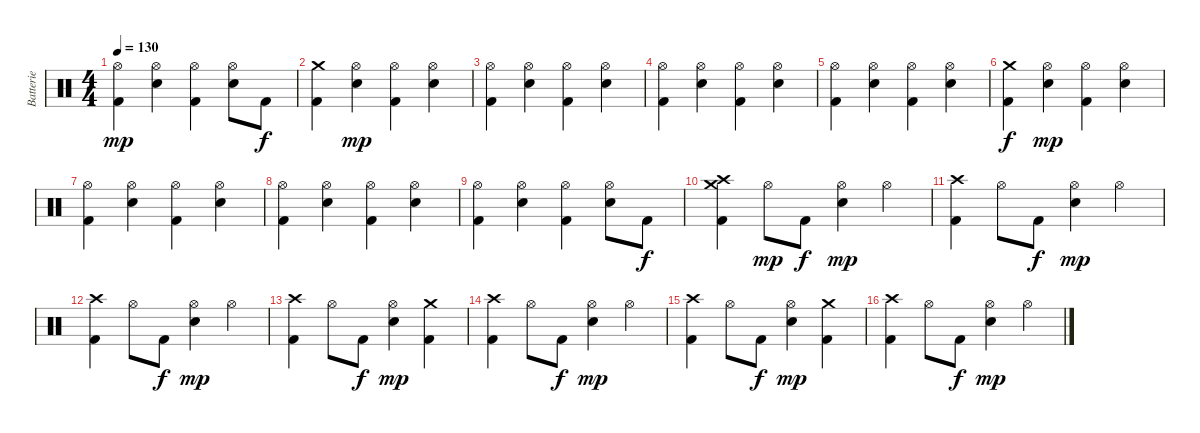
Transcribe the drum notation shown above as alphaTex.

\track ("Batterie" "Batterie") {instrument percussion}
\staff {score}
\articulation defaults
\ts (4 4)
\tempo 130
\clef neutral
\ks c
("Hi-Hat (open)" "Kick (hit) 2").4{dy mp} ("Hi-Hat (open)" "Electric Snare (hit)").4 ("Hi-Hat (open)" "Kick (hit) 2").4 ("Hi-Hat (open)" "Electric Snare (hit)").8 "Kick (hit) 2".8{dy f} |
("Crash medium (hit)" "Kick (hit) 2").4 ("Hi-Hat (open)" "Electric Snare (hit)").4{dy mp} ("Hi-Hat (open)" "Kick (hit) 2").4 ("Hi-Hat (open)" "Electric Snare (hit)").4 |
("Hi-Hat (open)" "Kick (hit) 2").4 ("Hi-Hat (open)" "Electric Snare (hit)").4 ("Hi-Hat (open)" "Kick (hit) 2").4 ("Hi-Hat (open)" "Electric Snare (hit)").4 |
("Hi-Hat (open)" "Kick (hit) 2").4 ("Hi-Hat (open)" "Electric Snare (hit)").4 ("Hi-Hat (open)" "Kick (hit) 2").4 ("Hi-Hat (open)" "Electric Snare (hit)").4 |
("Hi-Hat (open)" "Kick (hit) 2").4 ("Hi-Hat (open)" "Electric Snare (hit)").4 ("Hi-Hat (open)" "Kick (hit) 2").4 ("Hi-Hat (open)" "Electric Snare (hit)").4 |
("Crash medium (hit)" "Kick (hit) 2").4{dy f} ("Hi-Hat (open)" "Electric Snare (hit)").4{dy mp} ("Hi-Hat (open)" "Kick (hit) 2").4 ("Hi-Hat (open)" "Electric Snare (hit)").4 |
("Hi-Hat (open)" "Kick (hit) 2").4 ("Hi-Hat (open)" "Electric Snare (hit)").4 ("Hi-Hat (open)" "Kick (hit) 2").4 ("Hi-Hat (open)" "Electric Snare (hit)").4 |
("Hi-Hat (open)" "Kick (hit) 2").4 ("Hi-Hat (open)" "Electric Snare (hit)").4 ("Hi-Hat (open)" "Kick (hit) 2").4 ("Hi-Hat (open)" "Electric Snare (hit)").4 |
("Hi-Hat (open)" "Kick (hit) 2").4 ("Hi-Hat (open)" "Electric Snare (hit)").4 ("Hi-Hat (open)" "Kick (hit) 2").4 ("Hi-Hat (open)" "Electric Snare (hit)").8 "Kick (hit) 2".8{dy f} |
("Crash medium (hit)" "Crash high (hit)" "Kick (hit) 2").4 "Hi-Hat (open)".8{dy mp} "Kick (hit) 2".8{dy f} ("Hi-Hat (open)" "Electric Snare (hit)").4{dy mp} "Hi-Hat (open)".4 |
("Crash high (hit)" "Kick (hit) 2").4 "Hi-Hat (open)".8 "Kick (hit) 2".8{dy f} ("Hi-Hat (open)" "Electric Snare (hit)").4{dy mp} "Hi-Hat (open)".4 |
("Crash high (hit)" "Kick (hit) 2").4 "Hi-Hat (open)".8 "Kick (hit) 2".8{dy f} ("Hi-Hat (open)" "Electric Snare (hit)").4{dy mp} "Hi-Hat (open)".4 |
("Crash high (hit)" "Kick (hit) 2").4 "Hi-Hat (open)".8 "Kick (hit) 2".8{dy f} ("Hi-Hat (open)" "Electric Snare (hit)").4{dy mp} ("Crash medium (hit)" "Kick (hit) 2").4 |
("Crash high (hit)" "Kick (hit) 2").4 "Hi-Hat (open)".8 "Kick (hit) 2".8{dy f} ("Hi-Hat (open)" "Electric Snare (hit)").4{dy mp} "Hi-Hat (open)".4 |
("Crash high (hit)" "Kick (hit) 2").4 "Hi-Hat (open)".8 "Kick (hit) 2".8{dy f} ("Hi-Hat (open)" "Electric Snare (hit)").4{dy mp} ("Crash medium (hit)" "Kick (hit) 2").4 |
("Crash high (hit)" "Kick (hit) 2").4 "Hi-Hat (open)".8 "Kick (hit) 2".8{dy f} ("Hi-Hat (open)" "Electric Snare (hit)").4{dy mp} "Hi-Hat (open)".4
